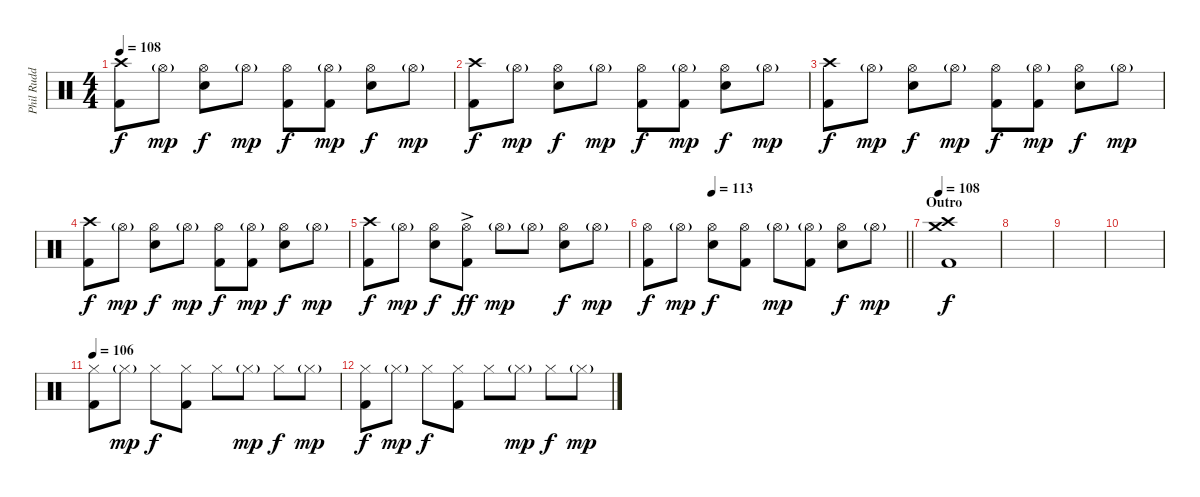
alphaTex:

\track ("Phil Rudd" "Phil Rudd") {instrument percussion}
\staff {score}
\articulation defaults
\ts (4 4)
\tempo 108
\clef neutral
\ks c
("Crash high (hit)" "Kick (hit) 2").8{dy f} "Hi-Hat (open)"{g}.8{dy mp} ("Hi-Hat (open)" "Electric Snare (hit)").8{dy f} "Hi-Hat (open)"{g}.8{dy mp} ("Hi-Hat (open)" "Kick (hit) 2").8{dy f} ("Hi-Hat (open)"{g} "Kick (hit) 2").8{dy mp} ("Hi-Hat (open)" "Electric Snare (hit)").8{dy f} "Hi-Hat (open)"{g}.8{dy mp} |
("Crash high (hit)" "Kick (hit) 2").8{dy f} "Hi-Hat (open)"{g}.8{dy mp} ("Hi-Hat (open)" "Electric Snare (hit)").8{dy f} "Hi-Hat (open)"{g}.8{dy mp} ("Hi-Hat (open)" "Kick (hit) 2").8{dy f} ("Hi-Hat (open)"{g} "Kick (hit) 2").8{dy mp} ("Hi-Hat (open)" "Electric Snare (hit)").8{dy f} "Hi-Hat (open)"{g}.8{dy mp} |
("Crash high (hit)" "Kick (hit) 2").8{dy f} "Hi-Hat (open)"{g}.8{dy mp} ("Hi-Hat (open)" "Electric Snare (hit)").8{dy f} "Hi-Hat (open)"{g}.8{dy mp} ("Hi-Hat (open)" "Kick (hit) 2").8{dy f} ("Hi-Hat (open)"{g} "Kick (hit) 2").8{dy mp} ("Hi-Hat (open)" "Electric Snare (hit)").8{dy f} "Hi-Hat (open)"{g}.8{dy mp} |
("Crash high (hit)" "Kick (hit) 2").8{dy f} "Hi-Hat (open)"{g}.8{dy mp} ("Hi-Hat (open)" "Electric Snare (hit)").8{dy f} "Hi-Hat (open)"{g}.8{dy mp} ("Hi-Hat (open)" "Kick (hit) 2").8{dy f} ("Hi-Hat (open)"{g} "Kick (hit) 2").8{dy mp} ("Hi-Hat (open)" "Electric Snare (hit)").8{dy f} "Hi-Hat (open)"{g}.8{dy mp} |
("Crash high (hit)" "Kick (hit) 2").8{dy f} "Hi-Hat (open)"{g}.8{dy mp} ("Hi-Hat (open)" "Electric Snare (hit)").8{dy f} ("Hi-Hat (open)"{ac} "Kick (hit) 2").8{dy ff} "Hi-Hat (open)"{g}.8{dy mp} "Hi-Hat (open)"{g}.8 ("Hi-Hat (open)" "Electric Snare (hit)").8{dy f} "Hi-Hat (open)"{g}.8{dy mp} |
\tempo (113 0.25)
\barLineRight lightlight
("Hi-Hat (open)" "Kick (hit) 2").8{dy f} "Hi-Hat (open)"{g}.8{dy mp} ("Hi-Hat (open)" "Electric Snare (hit)").8{dy f} ("Hi-Hat (open)" "Kick (hit) 2").8 "Hi-Hat (open)"{g}.8{dy mp} ("Hi-Hat (open)"{g} "Kick (hit) 2").8 ("Hi-Hat (open)" "Electric Snare (hit)").8{dy f} "Hi-Hat (open)"{g}.8{dy mp} |
\section ("" "Outro")
\tempo 108
("Crash high (hit)" "Crash medium (hit)" "Kick (hit) 2").1{dy f} |
|
|
|
\tempo 106
("Hi-Hat (closed)" "Kick (hit) 2").8 "Hi-Hat (closed)"{g}.8{dy mp} "Hi-Hat (closed)".8{dy f} ("Hi-Hat (closed)" "Kick (hit) 2").8 "Hi-Hat (closed)".8 "Hi-Hat (closed)"{g}.8{dy mp} "Hi-Hat (closed)".8{dy f} "Hi-Hat (closed)"{g}.8{dy mp} |
("Hi-Hat (closed)" "Kick (hit) 2").8{dy f} "Hi-Hat (closed)"{g}.8{dy mp} "Hi-Hat (closed)".8{dy f} ("Hi-Hat (closed)" "Kick (hit) 2").8 "Hi-Hat (closed)".8 "Hi-Hat (closed)"{g}.8{dy mp} "Hi-Hat (closed)".8{dy f} "Hi-Hat (closed)"{g}.8{dy mp}
